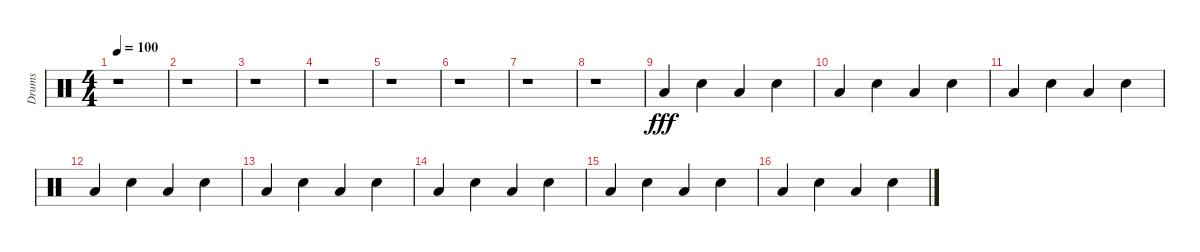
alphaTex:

\track ("Drums" "Drums") {instrument percussion}
\staff {score}
\articulation defaults
\ts (4 4)
\tempo 100
\clef neutral
\ks c
r.1{dy fff} |
r.1 |
r.1 |
r.1 |
r.1 |
r.1 |
r.1 |
r.1 |
"Low Tom (hit)".4 "Hand Clap (hit)".4 "Low Tom (hit)".4 "Hand Clap (hit)".4 |
"Low Tom (hit)".4 "Hand Clap (hit)".4 "Low Tom (hit)".4 "Hand Clap (hit)".4 |
"Low Tom (hit)".4 "Hand Clap (hit)".4 "Low Tom (hit)".4 "Hand Clap (hit)".4 |
"Low Tom (hit)".4 "Hand Clap (hit)".4 "Low Tom (hit)".4 "Hand Clap (hit)".4 |
"Low Tom (hit)".4 "Hand Clap (hit)".4 "Low Tom (hit)".4 "Hand Clap (hit)".4 |
"Low Tom (hit)".4 "Hand Clap (hit)".4 "Low Tom (hit)".4 "Hand Clap (hit)".4 |
"Low Tom (hit)".4 "Hand Clap (hit)".4 "Low Tom (hit)".4 "Hand Clap (hit)".4 |
"Low Tom (hit)".4 "Hand Clap (hit)".4 "Low Tom (hit)".4 "Hand Clap (hit)".4
